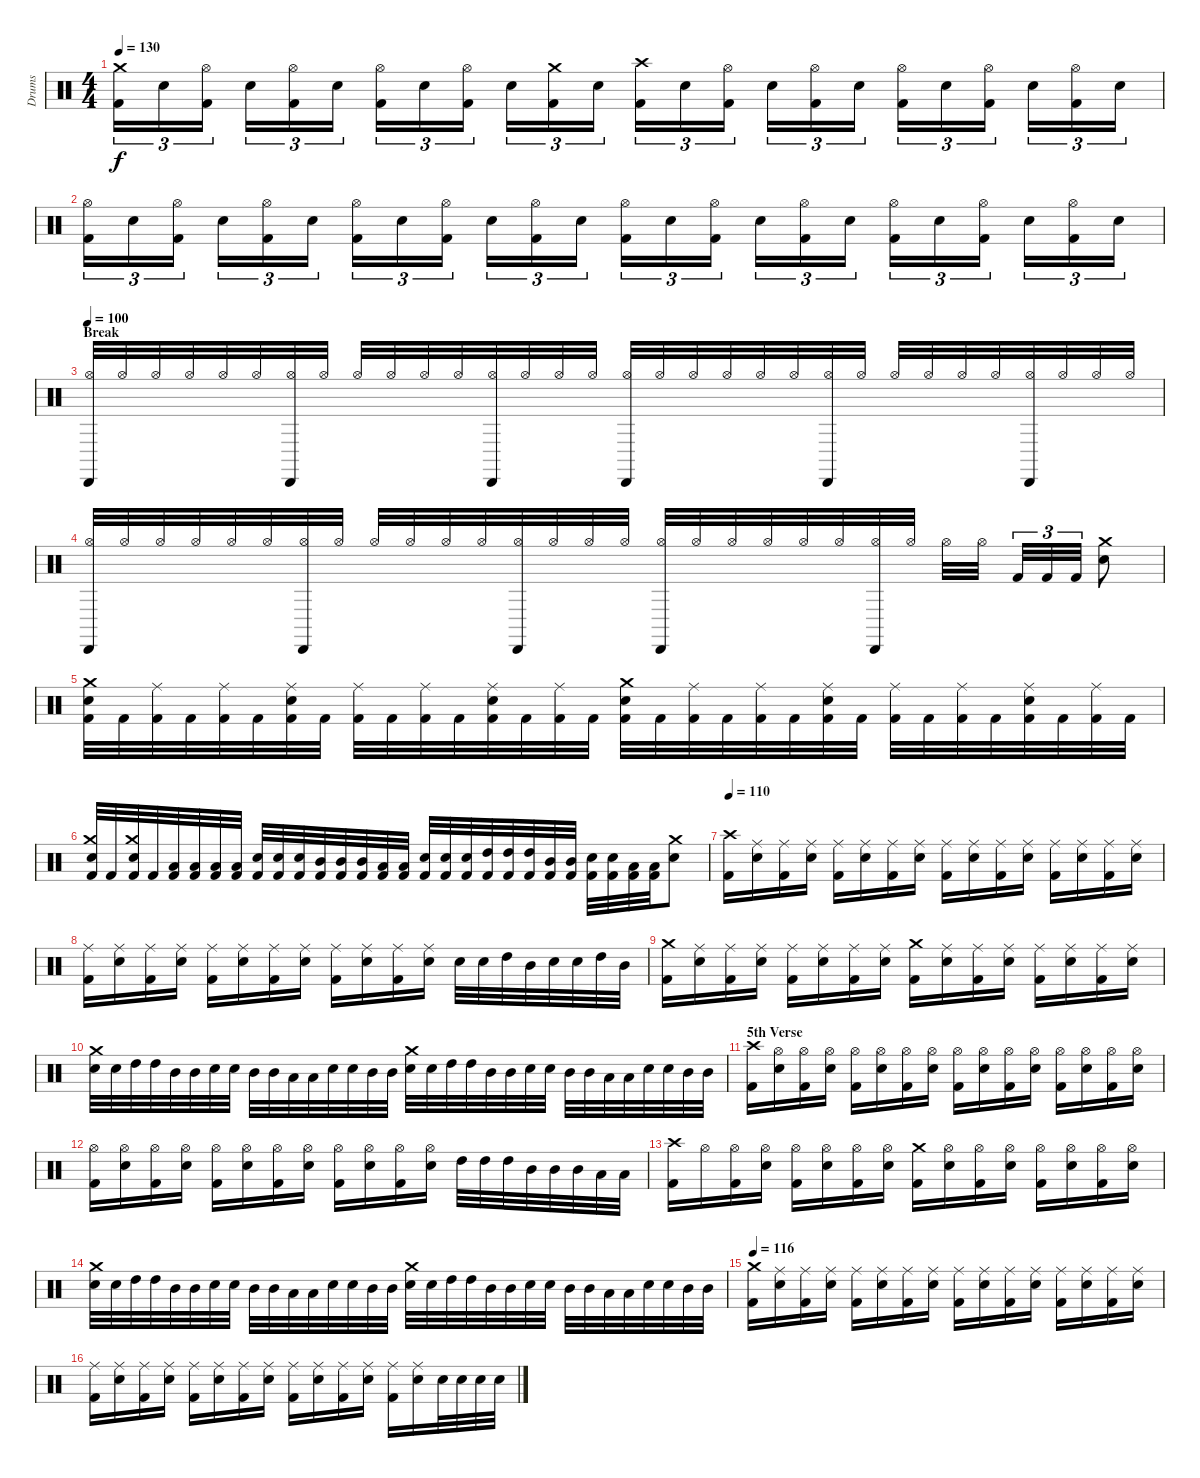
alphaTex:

\track ("Drums" "Drums") {instrument percussion}
\staff {score}
\articulation defaults
\ts (4 4)
\tempo 130
\clef neutral
\ks c
("Kick (hit) 2" "Crash medium (hit)").16{tu (3 2) dy f} "Electric Snare (hit)".16{tu (3 2)} ("Kick (hit) 2" "Hi-Hat (open)").16{tu (3 2)} "Electric Snare (hit)".16{tu (3 2)} ("Kick (hit) 2" "Hi-Hat (open)").16{tu (3 2)} "Electric Snare (hit)".16{tu (3 2)} ("Kick (hit) 2" "Hi-Hat (open)").16{tu (3 2)} "Electric Snare (hit)".16{tu (3 2)} ("Kick (hit) 2" "Hi-Hat (open)").16{tu (3 2)} "Electric Snare (hit)".16{tu (3 2)} ("Kick (hit) 2" "Crash medium (hit)").16{tu (3 2)} "Electric Snare (hit)".16{tu (3 2)} ("Kick (hit) 2" "Crash high (hit)").16{tu (3 2)} "Electric Snare (hit)".16{tu (3 2)} ("Kick (hit) 2" "Hi-Hat (open)").16{tu (3 2)} "Electric Snare (hit)".16{tu (3 2)} ("Kick (hit) 2" "Hi-Hat (open)").16{tu (3 2)} "Electric Snare (hit)".16{tu (3 2)} ("Kick (hit) 2" "Hi-Hat (open)").16{tu (3 2)} "Electric Snare (hit)".16{tu (3 2)} ("Kick (hit) 2" "Hi-Hat (open)").16{tu (3 2)} "Electric Snare (hit)".16{tu (3 2)} ("Kick (hit) 2" "Hi-Hat (open)").16{tu (3 2)} "Electric Snare (hit)".16{tu (3 2)} |
("Kick (hit) 2" "Hi-Hat (open)").16{tu (3 2)} "Electric Snare (hit)".16{tu (3 2)} ("Kick (hit) 2" "Hi-Hat (open)").16{tu (3 2)} "Electric Snare (hit)".16{tu (3 2)} ("Kick (hit) 2" "Hi-Hat (open)").16{tu (3 2)} "Electric Snare (hit)".16{tu (3 2)} ("Kick (hit) 2" "Hi-Hat (open)").16{tu (3 2)} "Electric Snare (hit)".16{tu (3 2)} ("Kick (hit) 2" "Hi-Hat (open)").16{tu (3 2)} "Electric Snare (hit)".16{tu (3 2)} ("Kick (hit) 2" "Hi-Hat (open)").16{tu (3 2)} "Electric Snare (hit)".16{tu (3 2)} ("Kick (hit) 2" "Hi-Hat (open)").16{tu (3 2)} "Electric Snare (hit)".16{tu (3 2)} ("Kick (hit) 2" "Hi-Hat (open)").16{tu (3 2)} "Electric Snare (hit)".16{tu (3 2)} ("Kick (hit) 2" "Hi-Hat (open)").16{tu (3 2)} "Electric Snare (hit)".16{tu (3 2)} ("Kick (hit) 2" "Hi-Hat (open)").16{tu (3 2)} "Electric Snare (hit)".16{tu (3 2)} ("Kick (hit) 2" "Hi-Hat (open)").16{tu (3 2)} "Electric Snare (hit)".16{tu (3 2)} ("Kick (hit) 2" "Hi-Hat (open)").16{tu (3 2)} "Electric Snare (hit)".16{tu (3 2)} |
\section ("" "Break")
\tempo 100
("Cabasa (hit)" "Hi-Hat (open)").32 "Hi-Hat (open)".32 "Hi-Hat (open)".32 "Hi-Hat (open)".32 "Hi-Hat (open)".32 "Hi-Hat (open)".32 ("Cabasa (hit)" "Hi-Hat (open)").32 "Hi-Hat (open)".32 "Hi-Hat (open)".32 "Hi-Hat (open)".32 "Hi-Hat (open)".32 "Hi-Hat (open)".32 ("Cabasa (hit)" "Hi-Hat (open)").32 "Hi-Hat (open)".32 "Hi-Hat (open)".32 "Hi-Hat (open)".32 ("Cabasa (hit)" "Hi-Hat (open)").32 "Hi-Hat (open)".32 "Hi-Hat (open)".32 "Hi-Hat (open)".32 "Hi-Hat (open)".32 "Hi-Hat (open)".32 ("Cabasa (hit)" "Hi-Hat (open)").32 "Hi-Hat (open)".32 "Hi-Hat (open)".32 "Hi-Hat (open)".32 "Hi-Hat (open)".32 "Hi-Hat (open)".32 ("Cabasa (hit)" "Hi-Hat (open)").32 "Hi-Hat (open)".32 "Hi-Hat (open)".32 "Hi-Hat (open)".32 |
("Cabasa (hit)" "Hi-Hat (open)").32 "Hi-Hat (open)".32 "Hi-Hat (open)".32 "Hi-Hat (open)".32 "Hi-Hat (open)".32 "Hi-Hat (open)".32 ("Cabasa (hit)" "Hi-Hat (open)").32 "Hi-Hat (open)".32 "Hi-Hat (open)".32 "Hi-Hat (open)".32 "Hi-Hat (open)".32 "Hi-Hat (open)".32 ("Cabasa (hit)" "Hi-Hat (open)").32 "Hi-Hat (open)".32 "Hi-Hat (open)".32 "Hi-Hat (open)".32 ("Cabasa (hit)" "Hi-Hat (open)").32 "Hi-Hat (open)".32 "Hi-Hat (open)".32 "Hi-Hat (open)".32 "Hi-Hat (open)".32 "Hi-Hat (open)".32 ("Cabasa (hit)" "Hi-Hat (open)").32 "Hi-Hat (open)".32 "Hi-Hat (open)".32 "Hi-Hat (open)".32 "Kick (hit) 2".32{tu (3 2)} "Kick (hit) 2".32{tu (3 2)} "Kick (hit) 2".32{tu (3 2)} ("Electric Snare (hit)" "Crash medium (hit)").8 |
("Kick (hit) 2" "Electric Snare (hit)" "Crash medium (hit)").32 "Kick (hit) 2".32 ("Kick (hit) 2" "Ride (middle)").32 "Kick (hit) 2".32 ("Kick (hit) 2" "Ride (middle)").32 "Kick (hit) 2".32 ("Kick (hit) 2" "Electric Snare (hit)" "Ride (middle)").32 "Kick (hit) 2".32 ("Kick (hit) 2" "Ride (middle)").32 "Kick (hit) 2".32 ("Kick (hit) 2" "Ride (middle)").32 "Kick (hit) 2".32 ("Kick (hit) 2" "Electric Snare (hit)" "Ride (middle)").32 "Kick (hit) 2".32 ("Kick (hit) 2" "Ride (middle)").32 "Kick (hit) 2".32 ("Kick (hit) 2" "Electric Snare (hit)" "Crash medium (hit)").32 "Kick (hit) 2".32 ("Kick (hit) 2" "Ride (middle)").32 "Kick (hit) 2".32 ("Kick (hit) 2" "Ride (middle)").32 "Kick (hit) 2".32 ("Kick (hit) 2" "Electric Snare (hit)" "Ride (middle)").32 "Kick (hit) 2".32 ("Kick (hit) 2" "Ride (middle)").32 "Kick (hit) 2".32 ("Kick (hit) 2" "Ride (middle)").32 "Kick (hit) 2".32 ("Kick (hit) 2" "Electric Snare (hit)" "Ride (middle)").32 "Kick (hit) 2".32 ("Kick (hit) 2" "Ride (middle)").32 "Kick (hit) 2".32 |
("Kick (hit) 2" "Electric Snare (hit)" "Crash medium (hit)").32 "Kick (hit) 2".32 ("Kick (hit) 2" "Electric Snare (hit)" "Crash medium (hit)").32 "Kick (hit) 2".32 ("Kick (hit) 2" "Low Tom (hit)").32 ("Kick (hit) 2" "Low Tom (hit)").32 ("Kick (hit) 2" "Low Tom (hit)").32 ("Kick (hit) 2" "Low Tom (hit)").32 ("Kick (hit) 2" "Electric Snare (hit)").32 ("Kick (hit) 2" "Electric Snare (hit)").32 ("Kick (hit) 2" "Electric Snare (hit)").32 ("Kick (hit) 2" "Mid Tom (hit)").32 ("Kick (hit) 2" "Mid Tom (hit)").32 ("Kick (hit) 2" "Mid Tom (hit)").32 ("Kick (hit) 2" "Low Tom (hit)").32 ("Kick (hit) 2" "Low Tom (hit)").32 ("Kick (hit) 2" "Electric Snare (hit)").32 ("Kick (hit) 2" "Electric Snare (hit)").32 ("Kick (hit) 2" "Electric Snare (hit)").32 ("Kick (hit) 2" "High Tom (hit)").32 ("Kick (hit) 2" "High Tom (hit)").32 ("Kick (hit) 2" "High Tom (hit)").32 ("Kick (hit) 2" "Mid Tom (hit)").32 ("Kick (hit) 2" "Mid Tom (hit)").32 ("Kick (hit) 2" "Electric Snare (hit)").32 ("Kick (hit) 2" "Electric Snare (hit)").32 ("Kick (hit) 2" "Low Tom (hit)").32 ("Kick (hit) 2" "Low Tom (hit)").32 ("Electric Snare (hit)" "Crash medium (hit)").8 |
\tempo 110
("Kick (hit) 2" "Crash high (hit)").16 ("Electric Snare (hit)" "Ride (middle)").16 ("Kick (hit) 2" "Ride (middle)").16 ("Electric Snare (hit)" "Ride (middle)").16 ("Kick (hit) 2" "Ride (middle)").16 ("Electric Snare (hit)" "Ride (middle)").16 ("Kick (hit) 2" "Ride (middle)").16 ("Electric Snare (hit)" "Ride (middle)").16 ("Kick (hit) 2" "Ride (middle)").16 ("Electric Snare (hit)" "Ride (middle)").16 ("Kick (hit) 2" "Ride (middle)").16 ("Electric Snare (hit)" "Ride (middle)").16 ("Kick (hit) 2" "Ride (middle)").16 ("Electric Snare (hit)" "Ride (middle)").16 ("Kick (hit) 2" "Ride (middle)").16 ("Electric Snare (hit)" "Ride (middle)").16 |
("Kick (hit) 2" "Ride (middle)").16 ("Electric Snare (hit)" "Ride (middle)").16 ("Kick (hit) 2" "Ride (middle)").16 ("Electric Snare (hit)" "Ride (middle)").16 ("Kick (hit) 2" "Ride (middle)").16 ("Electric Snare (hit)" "Ride (middle)").16 ("Kick (hit) 2" "Ride (middle)").16 ("Electric Snare (hit)" "Ride (middle)").16 ("Kick (hit) 2" "Ride (middle)").16 ("Electric Snare (hit)" "Ride (middle)").16 ("Kick (hit) 2" "Ride (middle)").16 ("Electric Snare (hit)" "Ride (middle)").16 "Electric Snare (hit)".32 "Electric Snare (hit)".32 "High Tom (hit)".32 "Mid Tom (hit)".32 "Electric Snare (hit)".32 "Electric Snare (hit)".32 "High Tom (hit)".32 "Mid Tom (hit)".32 |
("Kick (hit) 2" "Crash medium (hit)").16 ("Electric Snare (hit)" "Ride (middle)").16 ("Kick (hit) 2" "Ride (middle)").16 ("Electric Snare (hit)" "Ride (middle)").16 ("Kick (hit) 2" "Ride (middle)").16 ("Electric Snare (hit)" "Ride (middle)").16 ("Kick (hit) 2" "Ride (middle)").16 ("Electric Snare (hit)" "Ride (middle)").16 ("Kick (hit) 2" "Crash medium (hit)").16 ("Electric Snare (hit)" "Ride (middle)").16 ("Kick (hit) 2" "Ride (middle)").16 ("Electric Snare (hit)" "Ride (middle)").16 ("Kick (hit) 2" "Ride (middle)").16 ("Electric Snare (hit)" "Ride (middle)").16 ("Kick (hit) 2" "Ride (middle)").16 ("Electric Snare (hit)" "Ride (middle)").16 |
("Electric Snare (hit)" "Crash medium (hit)").32 "Electric Snare (hit)".32 "High Tom (hit)".32 "High Tom (hit)".32 "Mid Tom (hit)".32 "Mid Tom (hit)".32 "Electric Snare (hit)".32 "Electric Snare (hit)".32 "Mid Tom (hit)".32 "Mid Tom (hit)".32 "Low Tom (hit)".32 "Low Tom (hit)".32 "Electric Snare (hit)".32 "Electric Snare (hit)".32 "Mid Tom (hit)".32 "Mid Tom (hit)".32 ("Electric Snare (hit)" "Crash medium (hit)").32 "Electric Snare (hit)".32 "High Tom (hit)".32 "High Tom (hit)".32 "Mid Tom (hit)".32 "Mid Tom (hit)".32 "Electric Snare (hit)".32 "Electric Snare (hit)".32 "Mid Tom (hit)".32 "Mid Tom (hit)".32 "Low Tom (hit)".32 "Low Tom (hit)".32 "Electric Snare (hit)".32 "Electric Snare (hit)".32 "Mid Tom (hit)".32 "Mid Tom (hit)".32 |
\section ("" "5th Verse")
("Kick (hit) 2" "Crash high (hit)").16 ("Electric Snare (hit)" "Hi-Hat (open)").16 ("Kick (hit) 2" "Hi-Hat (open)").16 ("Electric Snare (hit)" "Hi-Hat (open)").16 ("Kick (hit) 2" "Hi-Hat (open)").16 ("Electric Snare (hit)" "Hi-Hat (open)").16 ("Kick (hit) 2" "Hi-Hat (open)").16 ("Electric Snare (hit)" "Hi-Hat (open)").16 ("Kick (hit) 2" "Hi-Hat (open)").16 ("Electric Snare (hit)" "Hi-Hat (open)").16 ("Kick (hit) 2" "Hi-Hat (open)").16 ("Electric Snare (hit)" "Hi-Hat (open)").16 ("Kick (hit) 2" "Hi-Hat (open)").16 ("Electric Snare (hit)" "Hi-Hat (open)").16 ("Kick (hit) 2" "Hi-Hat (open)").16 ("Electric Snare (hit)" "Hi-Hat (open)").16 |
("Kick (hit) 2" "Hi-Hat (open)").16 ("Electric Snare (hit)" "Hi-Hat (open)").16 ("Kick (hit) 2" "Hi-Hat (open)").16 ("Electric Snare (hit)" "Hi-Hat (open)").16 ("Kick (hit) 2" "Hi-Hat (open)").16 ("Electric Snare (hit)" "Hi-Hat (open)").16 ("Kick (hit) 2" "Hi-Hat (open)").16 ("Electric Snare (hit)" "Hi-Hat (open)").16 ("Kick (hit) 2" "Hi-Hat (open)").16 ("Electric Snare (hit)" "Hi-Hat (open)").16 ("Kick (hit) 2" "Hi-Hat (open)").16 ("Electric Snare (hit)" "Hi-Hat (open)").16 "High Tom (hit)".32 "High Tom (hit)".32 "High Tom (hit)".32 "Mid Tom (hit)".32 "Mid Tom (hit)".32 "Mid Tom (hit)".32 "Low Tom (hit)".32 "Low Tom (hit)".32 |
("Kick (hit) 2" "Crash high (hit)").16 "Hi-Hat (open)".16 ("Kick (hit) 2" "Hi-Hat (open)").16 ("Electric Snare (hit)" "Hi-Hat (open)").16 ("Kick (hit) 2" "Hi-Hat (open)").16 ("Electric Snare (hit)" "Hi-Hat (open)").16 ("Kick (hit) 2" "Hi-Hat (open)").16 ("Electric Snare (hit)" "Hi-Hat (open)").16 ("Kick (hit) 2" "Crash medium (hit)").16 ("Electric Snare (hit)" "Hi-Hat (open)").16 ("Kick (hit) 2" "Hi-Hat (open)").16 ("Electric Snare (hit)" "Hi-Hat (open)").16 ("Kick (hit) 2" "Hi-Hat (open)").16 ("Electric Snare (hit)" "Hi-Hat (open)").16 ("Kick (hit) 2" "Hi-Hat (open)").16 ("Electric Snare (hit)" "Hi-Hat (open)").16 |
("Electric Snare (hit)" "Crash medium (hit)").32 "Electric Snare (hit)".32 "High Tom (hit)".32 "High Tom (hit)".32 "Mid Tom (hit)".32 "Mid Tom (hit)".32 "Electric Snare (hit)".32 "Electric Snare (hit)".32 "Mid Tom (hit)".32 "Mid Tom (hit)".32 "Low Tom (hit)".32 "Low Tom (hit)".32 "Electric Snare (hit)".32 "Electric Snare (hit)".32 "Mid Tom (hit)".32 "Mid Tom (hit)".32 ("Electric Snare (hit)" "Crash medium (hit)").32 "Electric Snare (hit)".32 "High Tom (hit)".32 "High Tom (hit)".32 "Mid Tom (hit)".32 "Mid Tom (hit)".32 "Electric Snare (hit)".32 "Electric Snare (hit)".32 "Mid Tom (hit)".32 "Mid Tom (hit)".32 "Low Tom (hit)".32 "Low Tom (hit)".32 "Electric Snare (hit)".32 "Electric Snare (hit)".32 "Mid Tom (hit)".32 "Mid Tom (hit)".32 |
\tempo 116
("Kick (hit) 2" "Crash medium (hit)").16 ("Electric Snare (hit)" "Ride (middle)").16 ("Kick (hit) 2" "Ride (middle)").16 ("Electric Snare (hit)" "Ride (middle)").16 ("Kick (hit) 2" "Ride (middle)").16 ("Electric Snare (hit)" "Ride (middle)").16 ("Kick (hit) 2" "Ride (middle)").16 ("Electric Snare (hit)" "Ride (middle)").16 ("Kick (hit) 2" "Ride (middle)").16 ("Electric Snare (hit)" "Ride (middle)").16 ("Kick (hit) 2" "Ride (middle)").16 ("Electric Snare (hit)" "Ride (middle)").16 ("Kick (hit) 2" "Ride (middle)").16 ("Electric Snare (hit)" "Ride (middle)").16 ("Kick (hit) 2" "Ride (middle)").16 ("Electric Snare (hit)" "Ride (middle)").16 |
("Kick (hit) 2" "Ride (middle)").16 ("Electric Snare (hit)" "Ride (middle)").16 ("Kick (hit) 2" "Ride (middle)").16 ("Electric Snare (hit)" "Ride (middle)").16 ("Kick (hit) 2" "Ride (middle)").16 ("Electric Snare (hit)" "Ride (middle)").16 ("Kick (hit) 2" "Ride (middle)").16 ("Electric Snare (hit)" "Ride (middle)").16 ("Kick (hit) 2" "Ride (middle)").16 ("Electric Snare (hit)" "Ride (middle)").16 ("Kick (hit) 2" "Ride (middle)").16 ("Electric Snare (hit)" "Ride (middle)").16 ("Kick (hit) 2" "Ride (middle)").16 ("Electric Snare (hit)" "Ride (middle)").16 "Electric Snare (hit)".32 "Electric Snare (hit)".32 "Electric Snare (hit)".32 "Electric Snare (hit)".32
